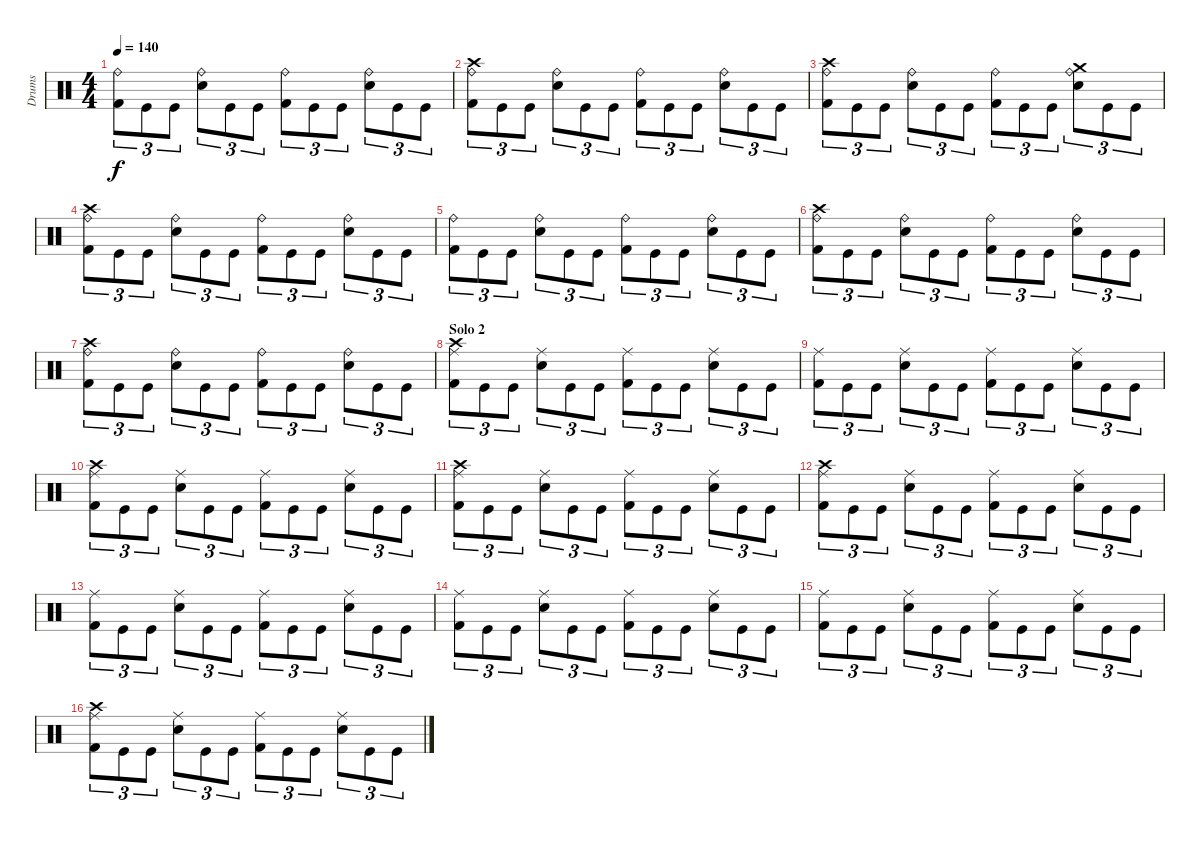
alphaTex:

\track ("Drums" "Drums") {instrument percussion}
\staff {score}
\articulation defaults
\ts (4 4)
\tempo 140
\clef neutral
\ks c
("Ride (bell)" "Kick (hit) 2").8{tu (3 2) dy f} "Kick (hit)".8{tu (3 2)} "Kick (hit)".8{tu (3 2)} ("Ride (bell)" "Snare (hit) 2").8{tu (3 2)} "Kick (hit)".8{tu (3 2)} "Kick (hit)".8{tu (3 2)} ("Ride (bell)" "Kick (hit) 2").8{tu (3 2)} "Kick (hit)".8{tu (3 2)} "Kick (hit)".8{tu (3 2)} ("Ride (bell)" "Snare (hit) 2").8{tu (3 2)} "Kick (hit)".8{tu (3 2)} "Kick (hit)".8{tu (3 2)} |
("Ride (bell)" "Kick (hit) 2" "Crash high (hit)").8{tu (3 2)} "Kick (hit)".8{tu (3 2)} "Kick (hit)".8{tu (3 2)} ("Ride (bell)" "Snare (hit) 2").8{tu (3 2)} "Kick (hit)".8{tu (3 2)} "Kick (hit)".8{tu (3 2)} ("Ride (bell)" "Kick (hit) 2").8{tu (3 2)} "Kick (hit)".8{tu (3 2)} "Kick (hit)".8{tu (3 2)} ("Ride (bell)" "Snare (hit) 2").8{tu (3 2)} "Kick (hit)".8{tu (3 2)} "Kick (hit)".8{tu (3 2)} |
("Ride (bell)" "Kick (hit) 2" "Crash high (hit)").8{tu (3 2)} "Kick (hit)".8{tu (3 2)} "Kick (hit)".8{tu (3 2)} ("Ride (bell)" "Snare (hit) 2").8{tu (3 2)} "Kick (hit)".8{tu (3 2)} "Kick (hit)".8{tu (3 2)} ("Ride (bell)" "Kick (hit) 2").8{tu (3 2)} "Kick (hit)".8{tu (3 2)} "Kick (hit)".8{tu (3 2)} ("Ride (bell)" "Snare (hit) 2" "Crash medium (hit)").8{tu (3 2)} "Kick (hit)".8{tu (3 2)} "Kick (hit)".8{tu (3 2)} |
("Ride (bell)" "Crash high (hit)" "Kick (hit) 2").8{tu (3 2)} "Kick (hit)".8{tu (3 2)} "Kick (hit)".8{tu (3 2)} ("Ride (bell)" "Snare (hit) 2").8{tu (3 2)} "Kick (hit)".8{tu (3 2)} "Kick (hit)".8{tu (3 2)} ("Ride (bell)" "Kick (hit) 2").8{tu (3 2)} "Kick (hit)".8{tu (3 2)} "Kick (hit)".8{tu (3 2)} ("Ride (bell)" "Snare (hit) 2").8{tu (3 2)} "Kick (hit)".8{tu (3 2)} "Kick (hit)".8{tu (3 2)} |
("Ride (bell)" "Kick (hit) 2").8{tu (3 2)} "Kick (hit)".8{tu (3 2)} "Kick (hit)".8{tu (3 2)} ("Ride (bell)" "Snare (hit) 2").8{tu (3 2)} "Kick (hit)".8{tu (3 2)} "Kick (hit)".8{tu (3 2)} ("Ride (bell)" "Kick (hit) 2").8{tu (3 2)} "Kick (hit)".8{tu (3 2)} "Kick (hit)".8{tu (3 2)} ("Ride (bell)" "Snare (hit) 2").8{tu (3 2)} "Kick (hit)".8{tu (3 2)} "Kick (hit)".8{tu (3 2)} |
("Ride (bell)" "Kick (hit) 2" "Crash high (hit)").8{tu (3 2)} "Kick (hit)".8{tu (3 2)} "Kick (hit)".8{tu (3 2)} ("Ride (bell)" "Snare (hit) 2").8{tu (3 2)} "Kick (hit)".8{tu (3 2)} "Kick (hit)".8{tu (3 2)} ("Ride (bell)" "Kick (hit) 2").8{tu (3 2)} "Kick (hit)".8{tu (3 2)} "Kick (hit)".8{tu (3 2)} ("Ride (bell)" "Snare (hit) 2").8{tu (3 2)} "Kick (hit)".8{tu (3 2)} "Kick (hit)".8{tu (3 2)} |
("Ride (bell)" "Kick (hit) 2" "Crash high (hit)").8{tu (3 2)} "Kick (hit)".8{tu (3 2)} "Kick (hit)".8{tu (3 2)} ("Ride (bell)" "Snare (hit) 2").8{tu (3 2)} "Kick (hit)".8{tu (3 2)} "Kick (hit)".8{tu (3 2)} ("Ride (bell)" "Kick (hit) 2").8{tu (3 2)} "Kick (hit)".8{tu (3 2)} "Kick (hit)".8{tu (3 2)} ("Ride (bell)" "Snare (hit) 2").8{tu (3 2)} "Kick (hit)".8{tu (3 2)} "Kick (hit)".8{tu (3 2)} |
\section ("" "Solo 2")
("Ride (middle)" "Crash high (hit)" "Kick (hit) 2").8{tu (3 2)} "Kick (hit)".8{tu (3 2)} "Kick (hit)".8{tu (3 2)} ("Ride (middle)" "Snare (hit) 2").8{tu (3 2)} "Kick (hit)".8{tu (3 2)} "Kick (hit)".8{tu (3 2)} ("Ride (middle)" "Kick (hit) 2").8{tu (3 2)} "Kick (hit)".8{tu (3 2)} "Kick (hit)".8{tu (3 2)} ("Ride (middle)" "Snare (hit) 2").8{tu (3 2)} "Kick (hit)".8{tu (3 2)} "Kick (hit)".8{tu (3 2)} |
("Ride (middle)" "Kick (hit) 2").8{tu (3 2)} "Kick (hit)".8{tu (3 2)} "Kick (hit)".8{tu (3 2)} ("Ride (middle)" "Snare (hit) 2").8{tu (3 2)} "Kick (hit)".8{tu (3 2)} "Kick (hit)".8{tu (3 2)} ("Ride (middle)" "Kick (hit) 2").8{tu (3 2)} "Kick (hit)".8{tu (3 2)} "Kick (hit)".8{tu (3 2)} ("Ride (middle)" "Snare (hit) 2").8{tu (3 2)} "Kick (hit)".8{tu (3 2)} "Kick (hit)".8{tu (3 2)} |
("Ride (middle)" "Crash high (hit)" "Kick (hit) 2").8{tu (3 2)} "Kick (hit)".8{tu (3 2)} "Kick (hit)".8{tu (3 2)} ("Ride (middle)" "Snare (hit) 2").8{tu (3 2)} "Kick (hit)".8{tu (3 2)} "Kick (hit)".8{tu (3 2)} ("Ride (middle)" "Kick (hit) 2").8{tu (3 2)} "Kick (hit)".8{tu (3 2)} "Kick (hit)".8{tu (3 2)} ("Ride (middle)" "Snare (hit) 2").8{tu (3 2)} "Kick (hit)".8{tu (3 2)} "Kick (hit)".8{tu (3 2)} |
("Ride (middle)" "Crash high (hit)" "Kick (hit) 2").8{tu (3 2)} "Kick (hit)".8{tu (3 2)} "Kick (hit)".8{tu (3 2)} ("Ride (middle)" "Snare (hit) 2").8{tu (3 2)} "Kick (hit)".8{tu (3 2)} "Kick (hit)".8{tu (3 2)} ("Ride (middle)" "Kick (hit) 2").8{tu (3 2)} "Kick (hit)".8{tu (3 2)} "Kick (hit)".8{tu (3 2)} ("Ride (middle)" "Snare (hit) 2").8{tu (3 2)} "Kick (hit)".8{tu (3 2)} "Kick (hit)".8{tu (3 2)} |
("Ride (middle)" "Crash high (hit)" "Kick (hit) 2").8{tu (3 2)} "Kick (hit)".8{tu (3 2)} "Kick (hit)".8{tu (3 2)} ("Ride (middle)" "Snare (hit) 2").8{tu (3 2)} "Kick (hit)".8{tu (3 2)} "Kick (hit)".8{tu (3 2)} ("Ride (middle)" "Kick (hit) 2").8{tu (3 2)} "Kick (hit)".8{tu (3 2)} "Kick (hit)".8{tu (3 2)} ("Ride (middle)" "Snare (hit) 2").8{tu (3 2)} "Kick (hit)".8{tu (3 2)} "Kick (hit)".8{tu (3 2)} |
("Ride (middle)" "Kick (hit) 2").8{tu (3 2)} "Kick (hit)".8{tu (3 2)} "Kick (hit)".8{tu (3 2)} ("Ride (middle)" "Snare (hit) 2").8{tu (3 2)} "Kick (hit)".8{tu (3 2)} "Kick (hit)".8{tu (3 2)} ("Ride (middle)" "Kick (hit) 2").8{tu (3 2)} "Kick (hit)".8{tu (3 2)} "Kick (hit)".8{tu (3 2)} ("Ride (middle)" "Snare (hit) 2").8{tu (3 2)} "Kick (hit)".8{tu (3 2)} "Kick (hit)".8{tu (3 2)} |
("Ride (middle)" "Kick (hit) 2").8{tu (3 2)} "Kick (hit)".8{tu (3 2)} "Kick (hit)".8{tu (3 2)} ("Ride (middle)" "Snare (hit) 2").8{tu (3 2)} "Kick (hit)".8{tu (3 2)} "Kick (hit)".8{tu (3 2)} ("Ride (middle)" "Kick (hit) 2").8{tu (3 2)} "Kick (hit)".8{tu (3 2)} "Kick (hit)".8{tu (3 2)} ("Ride (middle)" "Snare (hit) 2").8{tu (3 2)} "Kick (hit)".8{tu (3 2)} "Kick (hit)".8{tu (3 2)} |
("Ride (middle)" "Kick (hit) 2").8{tu (3 2)} "Kick (hit)".8{tu (3 2)} "Kick (hit)".8{tu (3 2)} ("Ride (middle)" "Snare (hit) 2").8{tu (3 2)} "Kick (hit)".8{tu (3 2)} "Kick (hit)".8{tu (3 2)} ("Ride (middle)" "Kick (hit) 2").8{tu (3 2)} "Kick (hit)".8{tu (3 2)} "Kick (hit)".8{tu (3 2)} ("Ride (middle)" "Snare (hit) 2").8{tu (3 2)} "Kick (hit)".8{tu (3 2)} "Kick (hit)".8{tu (3 2)} |
("Ride (middle)" "Kick (hit) 2" "Crash high (hit)").8{tu (3 2)} "Kick (hit)".8{tu (3 2)} "Kick (hit)".8{tu (3 2)} ("Ride (middle)" "Snare (hit) 2").8{tu (3 2)} "Kick (hit)".8{tu (3 2)} "Kick (hit)".8{tu (3 2)} ("Ride (middle)" "Kick (hit) 2").8{tu (3 2)} "Kick (hit)".8{tu (3 2)} "Kick (hit)".8{tu (3 2)} ("Ride (middle)" "Snare (hit) 2").8{tu (3 2)} "Kick (hit)".8{tu (3 2)} "Kick (hit)".8{tu (3 2)}
